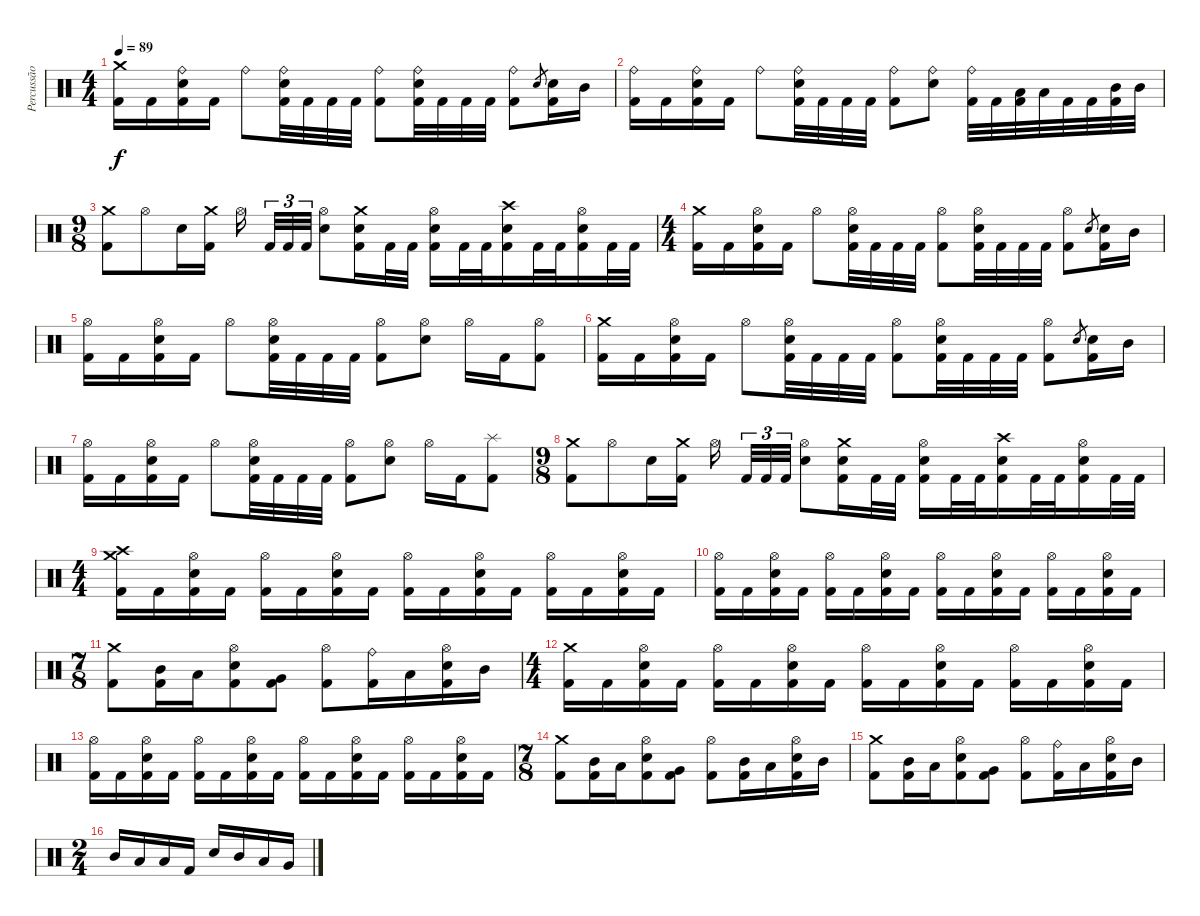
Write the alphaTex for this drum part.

\track ("Percussão" "Percussão") {instrument percussion}
\staff {score}
\articulation defaults
\ts (4 4)
\tempo 89
\clef neutral
\ks c
("Crash medium (hit)" "Kick (hit) 2").16{dy f} "Kick (hit) 2".16 ("Ride (bell)" "Snare (hit) 2" "Kick (hit) 2").16 "Kick (hit) 2".16 "Ride (bell)".8 ("Ride (bell)" "Snare (hit) 2" "Kick (hit) 2").32 "Kick (hit) 2".32 "Kick (hit) 2".32 "Kick (hit) 2".32 ("Ride (bell)" "Kick (hit) 2").8 ("Ride (bell)" "Snare (hit) 2" "Kick (hit) 2").32 "Kick (hit) 2".32 "Kick (hit) 2".32 "Kick (hit) 2".32 ("Ride (bell)" "Kick (hit) 2").8 "Snare (hit) 2".8{gr} ("Snare (hit) 2" "Kick (hit) 2").16 "Mid Tom (hit)".16 |
("Ride (bell)" "Kick (hit) 2").16 "Kick (hit) 2".16 ("Ride (bell)" "Snare (hit) 2" "Kick (hit) 2").16 "Kick (hit) 2".16 "Ride (bell)".8 ("Ride (bell)" "Snare (hit) 2" "Kick (hit) 2").32 "Kick (hit) 2".32 "Kick (hit) 2".32 "Kick (hit) 2".32 ("Ride (bell)" "Kick (hit) 2").8 ("Ride (bell)" "Snare (hit) 2").8 ("Ride (bell)" "Kick (hit) 2").32 "Kick (hit) 2".32 ("Low Tom (hit)" "Kick (hit) 2").32 "Low Tom (hit)".32 "Kick (hit) 2".32 "Kick (hit) 2".32 ("Mid Tom (hit)" "Kick (hit) 2").32 "Mid Tom (hit)".32 |
\ts (9 8)
("Crash medium (hit)" "Kick (hit) 2").8 "Hi-Hat (open)".8 "Snare (hit) 2".16 ("Crash medium (hit)" "Kick (hit) 2").16 "Hi-Hat (open)".16 "Kick (hit) 2".32{tu (3 2)} "Kick (hit) 2".32{tu (3 2)} "Kick (hit) 2".32{tu (3 2)} ("Hi-Hat (open)" "Snare (hit) 2").8 ("Crash medium (hit)" "Snare (hit) 2" "Kick (hit) 2").16 "Kick (hit) 2".32 "Kick (hit) 2".32 ("Hi-Hat (open)" "Snare (hit) 2" "Kick (hit) 2").16 "Kick (hit) 2".32 "Kick (hit) 2".32 ("Crash high (hit)" "Snare (hit) 2" "Kick (hit) 2").16 "Kick (hit) 2".32 "Kick (hit) 2".32 ("Hi-Hat (open)" "Snare (hit) 2" "Kick (hit) 2").16 "Kick (hit) 2".32 "Kick (hit) 2".32 |
\ts (4 4)
("Crash medium (hit)" "Kick (hit) 2").16 "Kick (hit) 2".16 ("Hi-Hat (open)" "Snare (hit) 2" "Kick (hit) 2").16 "Kick (hit) 2".16 "Hi-Hat (open)".8 ("Hi-Hat (open)" "Snare (hit) 2" "Kick (hit) 2").32 "Kick (hit) 2".32 "Kick (hit) 2".32 "Kick (hit) 2".32 ("Hi-Hat (open)" "Kick (hit) 2").8 ("Hi-Hat (open)" "Snare (hit) 2" "Kick (hit) 2").32 "Kick (hit) 2".32 "Kick (hit) 2".32 "Kick (hit) 2".32 ("Hi-Hat (open)" "Kick (hit) 2").8 "Snare (hit) 2".8{gr} ("Snare (hit) 2" "Kick (hit) 2").16 "Mid Tom (hit)".16 |
("Hi-Hat (open)" "Kick (hit) 2").16 "Kick (hit) 2".16 ("Hi-Hat (open)" "Snare (hit) 2" "Kick (hit) 2").16 "Kick (hit) 2".16 "Hi-Hat (open)".8 ("Hi-Hat (open)" "Snare (hit) 2" "Kick (hit) 2").32 "Kick (hit) 2".32 "Kick (hit) 2".32 "Kick (hit) 2".32 ("Hi-Hat (open)" "Kick (hit) 2").8 ("Hi-Hat (open)" "Snare (hit) 2").8 "Hi-Hat (open)".16 "Kick (hit) 2".16 ("Hi-Hat (open)" "Kick (hit) 2").8 |
("Crash medium (hit)" "Kick (hit) 2").16 "Kick (hit) 2".16 ("Hi-Hat (open)" "Snare (hit) 2" "Kick (hit) 2").16 "Kick (hit) 2".16 "Hi-Hat (open)".8 ("Hi-Hat (open)" "Snare (hit) 2" "Kick (hit) 2").32 "Kick (hit) 2".32 "Kick (hit) 2".32 "Kick (hit) 2".32 ("Hi-Hat (open)" "Kick (hit) 2").8 ("Hi-Hat (open)" "Snare (hit) 2" "Kick (hit) 2").32 "Kick (hit) 2".32 "Kick (hit) 2".32 "Kick (hit) 2".32 ("Hi-Hat (open)" "Kick (hit) 2").8 "Snare (hit) 2".8{gr} ("Snare (hit) 2" "Kick (hit) 2").16 "Mid Tom (hit)".16 |
("Hi-Hat (open)" "Kick (hit) 2").16 "Kick (hit) 2".16 ("Hi-Hat (open)" "Snare (hit) 2" "Kick (hit) 2").16 "Kick (hit) 2".16 "Hi-Hat (open)".8 ("Hi-Hat (open)" "Snare (hit) 2" "Kick (hit) 2").32 "Kick (hit) 2".32 "Kick (hit) 2".32 "Kick (hit) 2".32 ("Hi-Hat (open)" "Kick (hit) 2").8 ("Hi-Hat (open)" "Snare (hit) 2").8 "Hi-Hat (open)".16 "Kick (hit) 2".16 ("Splash (hit)" "Kick (hit) 2").8 |
\ts (9 8)
("Crash medium (hit)" "Kick (hit) 2").8 "Hi-Hat (open)".8 "Snare (hit) 2".16 ("Crash medium (hit)" "Kick (hit) 2").16 "Hi-Hat (open)".16 "Kick (hit) 2".32{tu (3 2)} "Kick (hit) 2".32{tu (3 2)} "Kick (hit) 2".32{tu (3 2)} ("Hi-Hat (open)" "Snare (hit) 2").8 ("Crash medium (hit)" "Snare (hit) 2" "Kick (hit) 2").16 "Kick (hit) 2".32 "Kick (hit) 2".32 ("Hi-Hat (open)" "Snare (hit) 2" "Kick (hit) 2").16 "Kick (hit) 2".32 "Kick (hit) 2".32 ("Crash high (hit)" "Snare (hit) 2" "Kick (hit) 2").16 "Kick (hit) 2".32 "Kick (hit) 2".32 ("Hi-Hat (open)" "Snare (hit) 2" "Kick (hit) 2").16 "Kick (hit) 2".32 "Kick (hit) 2".32 |
\ts (4 4)
("Crash medium (hit)" "Crash high (hit)" "Kick (hit) 2").16 "Kick (hit) 2".16 ("Hi-Hat (open)" "Snare (hit) 2" "Kick (hit) 2").16 "Kick (hit) 2".16 ("Hi-Hat (open)" "Kick (hit) 2").16 "Kick (hit) 2".16 ("Hi-Hat (open)" "Snare (hit) 2" "Kick (hit) 2").16 "Kick (hit) 2".16 ("Hi-Hat (open)" "Kick (hit) 2").16 "Kick (hit) 2".16 ("Hi-Hat (open)" "Snare (hit) 2" "Kick (hit) 2").16 "Kick (hit) 2".16 ("Hi-Hat (open)" "Kick (hit) 2").16 "Kick (hit) 2".16 ("Hi-Hat (open)" "Snare (hit) 2" "Kick (hit) 2").16 "Kick (hit) 2".16 |
("Hi-Hat (open)" "Kick (hit) 2").16 "Kick (hit) 2".16 ("Hi-Hat (open)" "Snare (hit) 2" "Kick (hit) 2").16 "Kick (hit) 2".16 ("Hi-Hat (open)" "Kick (hit) 2").16 "Kick (hit) 2".16 ("Hi-Hat (open)" "Snare (hit) 2" "Kick (hit) 2").16 "Kick (hit) 2".16 ("Hi-Hat (open)" "Kick (hit) 2").16 "Kick (hit) 2".16 ("Hi-Hat (open)" "Snare (hit) 2" "Kick (hit) 2").16 "Kick (hit) 2".16 ("Hi-Hat (open)" "Kick (hit) 2").16 "Kick (hit) 2".16 ("Hi-Hat (open)" "Snare (hit) 2" "Kick (hit) 2").16 "Kick (hit) 2".16 |
\ts (7 8)
("Crash medium (hit)" "Kick (hit) 2").8 ("Mid Tom (hit)" "Kick (hit) 2").16 "Low Tom (hit)".16 ("Hi-Hat (open)" "Snare (hit) 2" "Kick (hit) 2").8 ("Very Low Tom (hit)" "Kick (hit) 2").8 ("Hi-Hat (open)" "Kick (hit) 2").8 ("Ride (bell)" "Kick (hit) 2").16 "Low Tom (hit)".16 ("Hi-Hat (open)" "Snare (hit) 2" "Kick (hit) 2").16 "Mid Tom (hit)".16 |
\ts (4 4)
("Crash medium (hit)" "Kick (hit) 2").16 "Kick (hit) 2".16 ("Hi-Hat (open)" "Snare (hit) 2" "Kick (hit) 2").16 "Kick (hit) 2".16 ("Hi-Hat (open)" "Kick (hit) 2").16 "Kick (hit) 2".16 ("Hi-Hat (open)" "Snare (hit) 2" "Kick (hit) 2").16 "Kick (hit) 2".16 ("Hi-Hat (open)" "Kick (hit) 2").16 "Kick (hit) 2".16 ("Hi-Hat (open)" "Snare (hit) 2" "Kick (hit) 2").16 "Kick (hit) 2".16 ("Hi-Hat (open)" "Kick (hit) 2").16 "Kick (hit) 2".16 ("Hi-Hat (open)" "Snare (hit) 2" "Kick (hit) 2").16 "Kick (hit) 2".16 |
("Hi-Hat (open)" "Kick (hit) 2").16 "Kick (hit) 2".16 ("Hi-Hat (open)" "Snare (hit) 2" "Kick (hit) 2").16 "Kick (hit) 2".16 ("Hi-Hat (open)" "Kick (hit) 2").16 "Kick (hit) 2".16 ("Hi-Hat (open)" "Snare (hit) 2" "Kick (hit) 2").16 "Kick (hit) 2".16 ("Hi-Hat (open)" "Kick (hit) 2").16 "Kick (hit) 2".16 ("Hi-Hat (open)" "Snare (hit) 2" "Kick (hit) 2").16 "Kick (hit) 2".16 ("Hi-Hat (open)" "Kick (hit) 2").16 "Kick (hit) 2".16 ("Hi-Hat (open)" "Snare (hit) 2" "Kick (hit) 2").16 "Kick (hit) 2".16 |
\ts (7 8)
("Crash medium (hit)" "Kick (hit) 2").8 ("Mid Tom (hit)" "Kick (hit) 2").16 "Low Tom (hit)".16 ("Hi-Hat (open)" "Snare (hit) 2" "Kick (hit) 2").8 ("Very Low Tom (hit)" "Kick (hit) 2").8 ("Hi-Hat (open)" "Kick (hit) 2").8 ("Mid Tom (hit)" "Kick (hit) 2").16 "Low Tom (hit)".16 ("Hi-Hat (open)" "Snare (hit) 2" "Kick (hit) 2").16 "Mid Tom (hit)".16 |
("Crash medium (hit)" "Kick (hit) 2").8 ("Mid Tom (hit)" "Kick (hit) 2").16 "Low Tom (hit)".16 ("Hi-Hat (open)" "Snare (hit) 2" "Kick (hit) 2").8 ("Very Low Tom (hit)" "Kick (hit) 2").8 ("Hi-Hat (open)" "Kick (hit) 2").8 ("Ride (bell)" "Kick (hit) 2").16 "Low Tom (hit)".16 ("Hi-Hat (open)" "Snare (hit) 2" "Kick (hit) 2").16 "Mid Tom (hit)".16 |
\ts (2 4)
"Mid Tom (hit)".16 "Low Tom (hit)".16 "Low Tom (hit)".16 "Kick (hit) 2".16 "Snare (hit) 2".16 "Mid Tom (hit)".16 "Low Tom (hit)".16 "Very Low Tom (hit)".16
